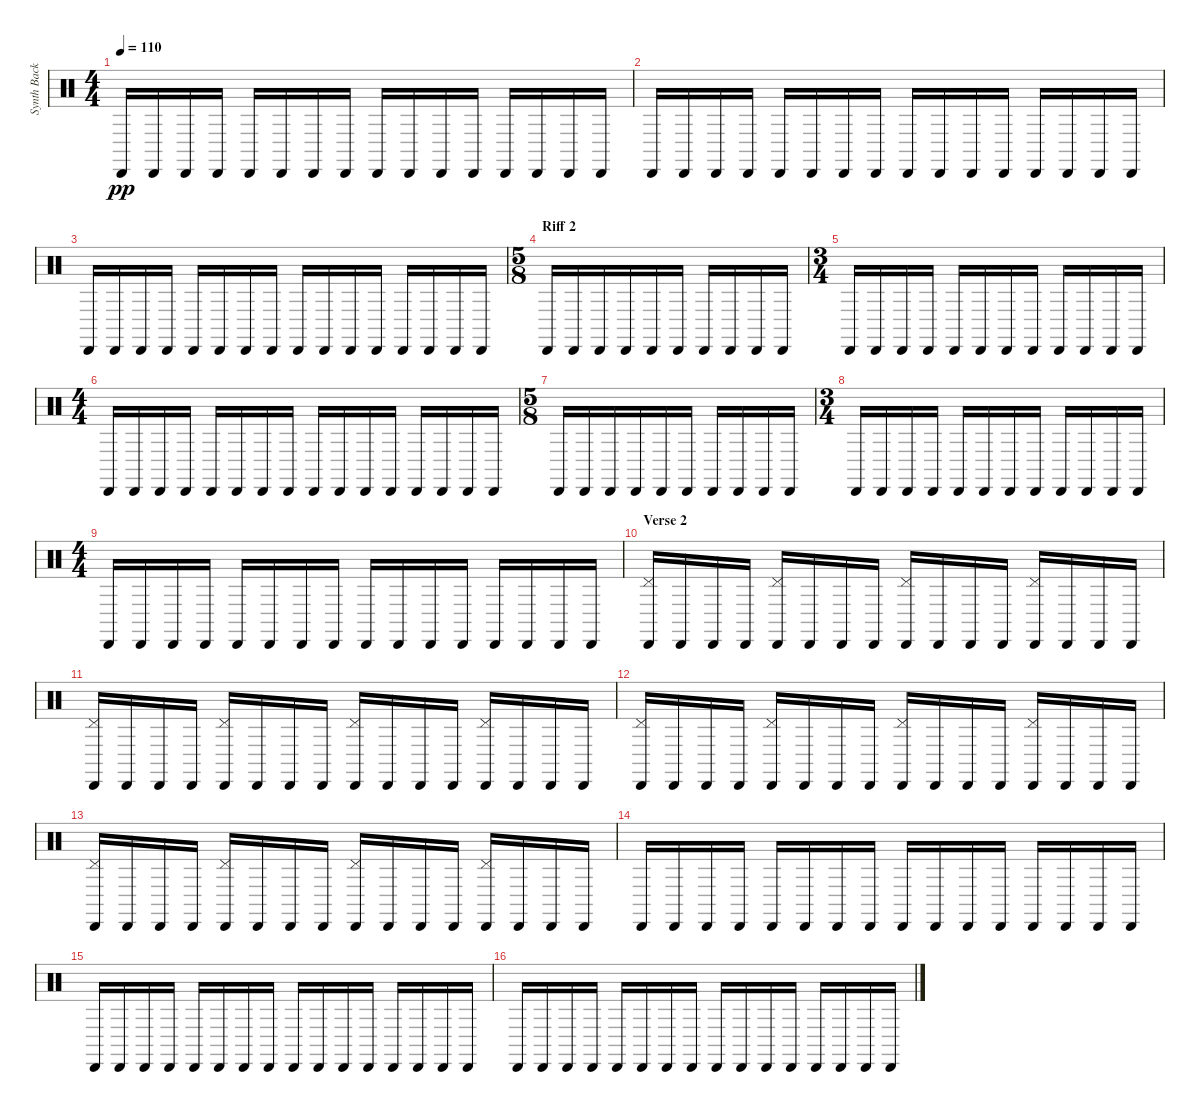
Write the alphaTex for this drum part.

\track ("Synth Background Rhythm" "Synth Back") {instrument percussion}
\staff {score}
\articulation defaults
\ts (4 4)
\tempo 110
\clef neutral
\ks c "Cabasa (hit)".16{dy pp} "Cabasa (hit)".16 "Cabasa (hit)".16 "Cabasa (hit)".16 "Cabasa (hit)".16 "Cabasa (hit)".16 "Cabasa (hit)".16 "Cabasa (hit)".16 "Cabasa (hit)".16 "Cabasa (hit)".16 "Cabasa (hit)".16 "Cabasa (hit)".16 "Cabasa (hit)".16 "Cabasa (hit)".16 "Cabasa (hit)".16 "Cabasa (hit)".16
|
"Cabasa (hit)".16 "Cabasa (hit)".16 "Cabasa (hit)".16 "Cabasa (hit)".16 "Cabasa (hit)".16 "Cabasa (hit)".16 "Cabasa (hit)".16 "Cabasa (hit)".16 "Cabasa (hit)".16 "Cabasa (hit)".16 "Cabasa (hit)".16 "Cabasa (hit)".16 "Cabasa (hit)".16 "Cabasa (hit)".16 "Cabasa (hit)".16 "Cabasa (hit)".16 |
"Cabasa (hit)".16 "Cabasa (hit)".16 "Cabasa (hit)".16 "Cabasa (hit)".16 "Cabasa (hit)".16 "Cabasa (hit)".16 "Cabasa (hit)".16 "Cabasa (hit)".16 "Cabasa (hit)".16 "Cabasa (hit)".16 "Cabasa (hit)".16 "Cabasa (hit)".16 "Cabasa (hit)".16 "Cabasa (hit)".16 "Cabasa (hit)".16 "Cabasa (hit)".16 |
\ts (5 8)
\section ("" "Riff 2")
"Cabasa (hit)".16 "Cabasa (hit)".16 "Cabasa (hit)".16 "Cabasa (hit)".16 "Cabasa (hit)".16 "Cabasa (hit)".16 "Cabasa (hit)".16 "Cabasa (hit)".16 "Cabasa (hit)".16 "Cabasa (hit)".16 |
\ts (3 4)
"Cabasa (hit)".16 "Cabasa (hit)".16 "Cabasa (hit)".16 "Cabasa (hit)".16 "Cabasa (hit)".16 "Cabasa (hit)".16 "Cabasa (hit)".16 "Cabasa (hit)".16 "Cabasa (hit)".16 "Cabasa (hit)".16 "Cabasa (hit)".16 "Cabasa (hit)".16 |
\ts (4 4)
"Cabasa (hit)".16 "Cabasa (hit)".16 "Cabasa (hit)".16 "Cabasa (hit)".16 "Cabasa (hit)".16 "Cabasa (hit)".16 "Cabasa (hit)".16 "Cabasa (hit)".16 "Cabasa (hit)".16 "Cabasa (hit)".16 "Cabasa (hit)".16 "Cabasa (hit)".16 "Cabasa (hit)".16 "Cabasa (hit)".16 "Cabasa (hit)".16 "Cabasa (hit)".16 |
\ts (5 8)
"Cabasa (hit)".16 "Cabasa (hit)".16 "Cabasa (hit)".16 "Cabasa (hit)".16 "Cabasa (hit)".16 "Cabasa (hit)".16 "Cabasa (hit)".16 "Cabasa (hit)".16 "Cabasa (hit)".16 "Cabasa (hit)".16 |
\ts (3 4)
"Cabasa (hit)".16 "Cabasa (hit)".16 "Cabasa (hit)".16 "Cabasa (hit)".16 "Cabasa (hit)".16 "Cabasa (hit)".16 "Cabasa (hit)".16 "Cabasa (hit)".16 "Cabasa (hit)".16 "Cabasa (hit)".16 "Cabasa (hit)".16 "Cabasa (hit)".16 |
\ts (4 4)
"Cabasa (hit)".16 "Cabasa (hit)".16 "Cabasa (hit)".16 "Cabasa (hit)".16 "Cabasa (hit)".16 "Cabasa (hit)".16 "Cabasa (hit)".16 "Cabasa (hit)".16 "Cabasa (hit)".16 "Cabasa (hit)".16 "Cabasa (hit)".16 "Cabasa (hit)".16 "Cabasa (hit)".16 "Cabasa (hit)".16 "Cabasa (hit)".16 "Cabasa (hit)".16 |
\section ("" "Verse 2")
("Pedal Hi-Hat (hit)" "Cabasa (hit)").16 "Cabasa (hit)".16 "Cabasa (hit)".16 "Cabasa (hit)".16 ("Pedal Hi-Hat (hit)" "Cabasa (hit)").16 "Cabasa (hit)".16 "Cabasa (hit)".16 "Cabasa (hit)".16 ("Pedal Hi-Hat (hit)" "Cabasa (hit)").16 "Cabasa (hit)".16 "Cabasa (hit)".16 "Cabasa (hit)".16 ("Pedal Hi-Hat (hit)" "Cabasa (hit)").16 "Cabasa (hit)".16 "Cabasa (hit)".16 "Cabasa (hit)".16 |
("Pedal Hi-Hat (hit)" "Cabasa (hit)").16 "Cabasa (hit)".16 "Cabasa (hit)".16 "Cabasa (hit)".16 ("Pedal Hi-Hat (hit)" "Cabasa (hit)").16 "Cabasa (hit)".16 "Cabasa (hit)".16 "Cabasa (hit)".16 ("Pedal Hi-Hat (hit)" "Cabasa (hit)").16 "Cabasa (hit)".16 "Cabasa (hit)".16 "Cabasa (hit)".16 ("Pedal Hi-Hat (hit)" "Cabasa (hit)").16 "Cabasa (hit)".16 "Cabasa (hit)".16 "Cabasa (hit)".16 |
("Pedal Hi-Hat (hit)" "Cabasa (hit)").16 "Cabasa (hit)".16 "Cabasa (hit)".16 "Cabasa (hit)".16 ("Pedal Hi-Hat (hit)" "Cabasa (hit)").16 "Cabasa (hit)".16 "Cabasa (hit)".16 "Cabasa (hit)".16 ("Pedal Hi-Hat (hit)" "Cabasa (hit)").16 "Cabasa (hit)".16 "Cabasa (hit)".16 "Cabasa (hit)".16 ("Pedal Hi-Hat (hit)" "Cabasa (hit)").16 "Cabasa (hit)".16 "Cabasa (hit)".16 "Cabasa (hit)".16 |
("Pedal Hi-Hat (hit)" "Cabasa (hit)").16 "Cabasa (hit)".16 "Cabasa (hit)".16 "Cabasa (hit)".16 ("Pedal Hi-Hat (hit)" "Cabasa (hit)").16 "Cabasa (hit)".16 "Cabasa (hit)".16 "Cabasa (hit)".16 ("Pedal Hi-Hat (hit)" "Cabasa (hit)").16 "Cabasa (hit)".16 "Cabasa (hit)".16 "Cabasa (hit)".16 ("Pedal Hi-Hat (hit)" "Cabasa (hit)").16 "Cabasa (hit)".16 "Cabasa (hit)".16 "Cabasa (hit)".16 |
"Cabasa (hit)".16 "Cabasa (hit)".16 "Cabasa (hit)".16 "Cabasa (hit)".16 "Cabasa (hit)".16 "Cabasa (hit)".16 "Cabasa (hit)".16 "Cabasa (hit)".16 "Cabasa (hit)".16 "Cabasa (hit)".16 "Cabasa (hit)".16 "Cabasa (hit)".16 "Cabasa (hit)".16 "Cabasa (hit)".16 "Cabasa (hit)".16 "Cabasa (hit)".16 |
"Cabasa (hit)".16 "Cabasa (hit)".16 "Cabasa (hit)".16 "Cabasa (hit)".16 "Cabasa (hit)".16 "Cabasa (hit)".16 "Cabasa (hit)".16 "Cabasa (hit)".16 "Cabasa (hit)".16 "Cabasa (hit)".16 "Cabasa (hit)".16 "Cabasa (hit)".16 "Cabasa (hit)".16 "Cabasa (hit)".16 "Cabasa (hit)".16 "Cabasa (hit)".16 |
"Cabasa (hit)".16 "Cabasa (hit)".16 "Cabasa (hit)".16 "Cabasa (hit)".16 "Cabasa (hit)".16 "Cabasa (hit)".16 "Cabasa (hit)".16 "Cabasa (hit)".16 "Cabasa (hit)".16 "Cabasa (hit)".16 "Cabasa (hit)".16 "Cabasa (hit)".16 "Cabasa (hit)".16 "Cabasa (hit)".16 "Cabasa (hit)".16 "Cabasa (hit)".16
